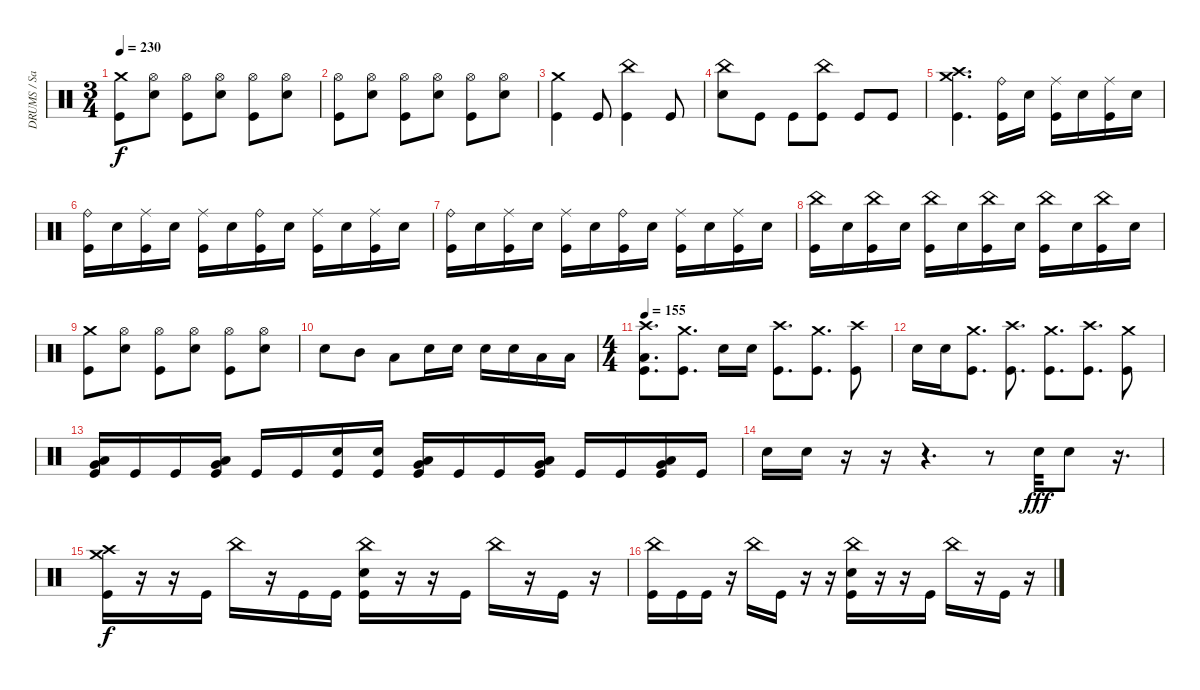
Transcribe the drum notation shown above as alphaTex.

\track ("DRUMS / Sasha" "DRUMS / Sa") {instrument percussion}
\staff {score}
\articulation defaults
\ts (3 4)
\tempo 230
\clef neutral
\ks c
("Crash medium (hit)" "Kick (hit)").8{dy f} ("Hi-Hat (open)" "Snare (hit) 2").8 ("Kick (hit)" "Hi-Hat (open)").8 ("Hi-Hat (open)" "Snare (hit) 2").8 ("Kick (hit)" "Hi-Hat (open)").8 ("Hi-Hat (open)" "Snare (hit) 2").8 |
("Kick (hit)" "Hi-Hat (open)").8 ("Hi-Hat (open)" "Snare (hit) 2").8 ("Kick (hit)" "Hi-Hat (open)").8 ("Hi-Hat (open)" "Snare (hit) 2").8 ("Kick (hit)" "Hi-Hat (open)").8 ("Hi-Hat (open)" "Snare (hit) 2").8 |
("Crash medium (hit)" "Kick (hit)").4 "Kick (hit)".8 ("China (hit)" "Kick (hit)").4 "Kick (hit)".8 |
("China (hit)" "Snare (hit) 2").8 "Kick (hit)".8 "Kick (hit)".8 ("China (hit)" "Kick (hit)").8 "Kick (hit)".8 "Kick (hit)".8 |
("Kick (hit)" "Crash high (hit)" "Crash medium (hit)").4{d} ("Kick (hit)" "Ride (bell)").16 "Snare (hit) 2".16 ("Kick (hit)" "Ride (middle)").16 "Snare (hit) 2".16 ("Kick (hit)" "Ride (middle)").16 "Snare (hit) 2".16 |
("Kick (hit)" "Ride (bell)").16 "Snare (hit) 2".16 ("Kick (hit)" "Ride (middle)").16 "Snare (hit) 2".16 ("Kick (hit)" "Ride (middle)").16 "Snare (hit) 2".16 ("Kick (hit)" "Ride (bell)").16 "Snare (hit) 2".16 ("Kick (hit)" "Ride (middle)").16 "Snare (hit) 2".16 ("Kick (hit)" "Ride (middle)").16 "Snare (hit) 2".16 |
("Kick (hit)" "Ride (bell)").16 "Snare (hit) 2".16 ("Kick (hit)" "Ride (middle)").16 "Snare (hit) 2".16 ("Kick (hit)" "Ride (middle)").16 "Snare (hit) 2".16 ("Kick (hit)" "Ride (bell)").16 "Snare (hit) 2".16 ("Kick (hit)" "Ride (middle)").16 "Snare (hit) 2".16 ("Kick (hit)" "Ride (middle)").16 "Snare (hit) 2".16 |
("Kick (hit)" "China (hit)").16 "Snare (hit) 2".16 ("Kick (hit)" "China (hit)").16 "Snare (hit) 2".16 ("Kick (hit)" "China (hit)").16 "Snare (hit) 2".16 ("Kick (hit)" "China (hit)").16 "Snare (hit) 2".16 ("Kick (hit)" "China (hit)").16 "Snare (hit) 2".16 ("Kick (hit)" "China (hit)").16 "Snare (hit) 2".16 |
("Crash medium (hit)" "Kick (hit)").8 ("Hi-Hat (open)" "Snare (hit) 2").8 ("Kick (hit)" "Hi-Hat (open)").8 ("Hi-Hat (open)" "Snare (hit) 2").8 ("Kick (hit)" "Hi-Hat (open)").8 ("Hi-Hat (open)" "Snare (hit) 2").8 |
"Snare (hit) 2".8 "Mid Tom (hit)".8 "Low Tom (hit)".8 "Snare (hit) 2".16 "Snare (hit) 2".16 "Snare (hit) 2".16 "Snare (hit) 2".16 "Low Tom (hit)".16 "Low Tom (hit)".16 |
\ts (4 4)
\tempo 155
("Kick (hit)" "Crash high (hit)" "Low Tom (hit)").8{d} ("Kick (hit)" "Crash medium (hit)").8{d} "Snare (hit) 2".16 "Snare (hit) 2".16 ("Kick (hit)" "Crash high (hit)").8{d} ("Kick (hit)" "Crash medium (hit)").8{d} ("Kick (hit)" "Crash high (hit)").8 |
"Snare (hit) 2".16 "Snare (hit) 2".16 ("Kick (hit)" "Crash medium (hit)").8{d} ("Kick (hit)" "Crash high (hit)").8{d} ("Kick (hit)" "Crash medium (hit)").8{d} ("Kick (hit)" "Crash high (hit)").8{d} ("Kick (hit)" "Crash medium (hit)").8 |
("Kick (hit)" "Low Tom (hit)" "Very Low Tom (hit)").16 "Kick (hit)".16 "Kick (hit)".16 ("Kick (hit)" "Low Tom (hit)" "Very Low Tom (hit)").16 "Kick (hit)".16 "Kick (hit)".16 ("Kick (hit)" "Snare (hit) 2").16 ("Kick (hit)" "Snare (hit) 2").16 ("Kick (hit)" "Low Tom (hit)" "Very Low Tom (hit)").16 "Kick (hit)".16 "Kick (hit)".16 ("Kick (hit)" "Low Tom (hit)" "Very Low Tom (hit)").16 "Kick (hit)".16 "Kick (hit)".16 ("Kick (hit)" "Low Tom (hit)" "Very Low Tom (hit)").16 "Kick (hit)".16 |
"Snare (hit) 2".16 "Snare (hit) 2".16 r.16 r.16 r.4{d} r.8 "Snare (hit) 2".32{dy fff} "Snare (hit) 2".8 r.16{d} |
("Kick (hit)" "Crash high (hit)" "Crash medium (hit)").16{dy f} r.16 r.16 "Kick (hit)".16 "China (hit)".16 r.16 "Kick (hit)".16 "Kick (hit)".16 ("Kick (hit)" "China (hit)" "Snare (hit) 2").16 r.16 r.16 "Kick (hit)".16 "China (hit)".16 r.16 "Kick (hit)".16 r.16 |
("Kick (hit)" "China (hit)").16 "Kick (hit)".16 "Kick (hit)".16 r.16 "China (hit)".16 "Kick (hit)".16 r.16 r.16 ("Kick (hit)" "China (hit)" "Snare (hit) 2").16 r.16 r.16 "Kick (hit)".16 "China (hit)".16 r.16 "Kick (hit)".16 r.16
